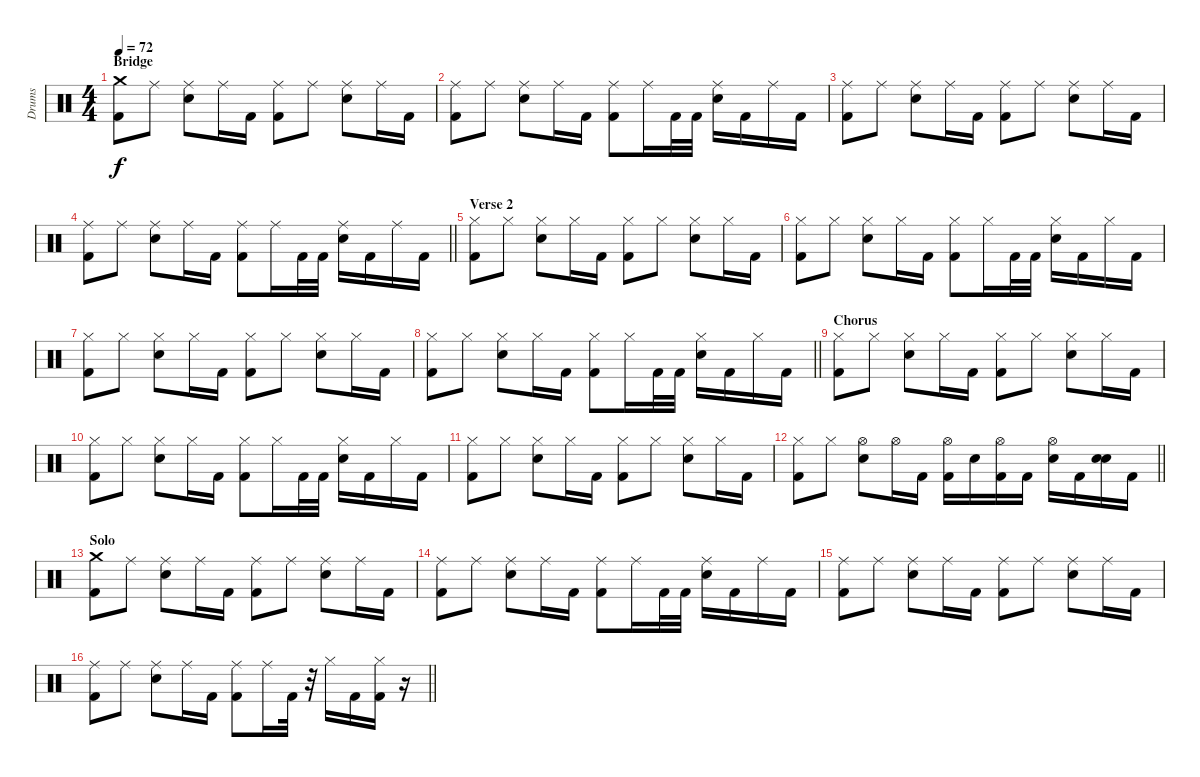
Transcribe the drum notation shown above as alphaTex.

\track ("Drums" "Drums") {instrument percussion}
\staff {score}
\articulation defaults
\ts (4 4)
\section ("" "Bridge")
\tempo 72
\clef neutral
\ks c
("Crash medium (hit)" "Kick (hit) 2").8{dy f} "Ride (middle)".8 ("Ride (middle)" "Electric Snare (hit)").8 "Ride (middle)".16 "Kick (hit) 2".16 ("Ride (middle)" "Kick (hit) 2").8 "Ride (middle)".8 ("Ride (middle)" "Electric Snare (hit)").8 "Ride (middle)".16 "Kick (hit) 2".16 |
("Ride (middle)" "Kick (hit) 2").8 "Ride (middle)".8 ("Ride (middle)" "Electric Snare (hit)").8 "Ride (middle)".16 "Kick (hit) 2".16 ("Ride (middle)" "Kick (hit) 2").8 "Ride (middle)".16 "Kick (hit) 2".32 "Kick (hit) 2".32 ("Ride (middle)" "Electric Snare (hit)").16 "Kick (hit) 2".16 "Ride (middle)".16 "Kick (hit) 2".16 |
("Ride (middle)" "Kick (hit) 2").8 "Ride (middle)".8 ("Ride (middle)" "Electric Snare (hit)").8 "Ride (middle)".16 "Kick (hit) 2".16 ("Ride (middle)" "Kick (hit) 2").8 "Ride (middle)".8 ("Ride (middle)" "Electric Snare (hit)").8 "Ride (middle)".16 "Kick (hit) 2".16 |
\barLineRight lightlight
("Ride (middle)" "Kick (hit) 2").8 "Ride (middle)".8 ("Ride (middle)" "Electric Snare (hit)").8 "Ride (middle)".16 "Kick (hit) 2".16 ("Ride (middle)" "Kick (hit) 2").8 "Ride (middle)".16 "Kick (hit) 2".32 "Kick (hit) 2".32 ("Ride (middle)" "Electric Snare (hit)").16 "Kick (hit) 2".16 "Ride (middle)".16 "Kick (hit) 2".16 |
\section ("" "Verse 2")
("Hi-Hat (closed)" "Kick (hit) 2").8 "Hi-Hat (closed)".8 ("Hi-Hat (closed)" "Electric Snare (hit)").8 "Hi-Hat (closed)".16 "Kick (hit) 2".16 ("Hi-Hat (closed)" "Kick (hit) 2").8 "Hi-Hat (closed)".8 ("Hi-Hat (closed)" "Electric Snare (hit)").8 "Hi-Hat (closed)".16 "Kick (hit) 2".16 |
("Hi-Hat (closed)" "Kick (hit) 2").8 "Hi-Hat (closed)".8 ("Hi-Hat (closed)" "Electric Snare (hit)").8 "Hi-Hat (closed)".16 "Kick (hit) 2".16 ("Hi-Hat (closed)" "Kick (hit) 2").8 "Hi-Hat (closed)".16 "Kick (hit) 2".32 "Kick (hit) 2".32 ("Hi-Hat (closed)" "Electric Snare (hit)").16 "Kick (hit) 2".16 "Hi-Hat (closed)".16 "Kick (hit) 2".16 |
("Hi-Hat (closed)" "Kick (hit) 2").8 "Hi-Hat (closed)".8 ("Hi-Hat (closed)" "Electric Snare (hit)").8 "Hi-Hat (closed)".16 "Kick (hit) 2".16 ("Hi-Hat (closed)" "Kick (hit) 2").8 "Hi-Hat (closed)".8 ("Hi-Hat (closed)" "Electric Snare (hit)").8 "Hi-Hat (closed)".16 "Kick (hit) 2".16 |
\barLineRight lightlight
("Hi-Hat (closed)" "Kick (hit) 2").8 "Hi-Hat (closed)".8 ("Hi-Hat (closed)" "Electric Snare (hit)").8 "Hi-Hat (closed)".16 "Kick (hit) 2".16 ("Hi-Hat (closed)" "Kick (hit) 2").8 "Hi-Hat (closed)".16 "Kick (hit) 2".32 "Kick (hit) 2".32 ("Hi-Hat (closed)" "Electric Snare (hit)").16 "Kick (hit) 2".16 "Hi-Hat (closed)".16 "Kick (hit) 2".16 |
\section ("" "Chorus")
("Hi-Hat (closed)" "Kick (hit) 2").8 "Hi-Hat (closed)".8 ("Hi-Hat (closed)" "Electric Snare (hit)").8 "Hi-Hat (closed)".16 "Kick (hit) 2".16 ("Hi-Hat (closed)" "Kick (hit) 2").8 "Hi-Hat (closed)".8 ("Hi-Hat (closed)" "Electric Snare (hit)").8 "Hi-Hat (closed)".16 "Kick (hit) 2".16 |
("Hi-Hat (closed)" "Kick (hit) 2").8 "Hi-Hat (closed)".8 ("Hi-Hat (closed)" "Electric Snare (hit)").8 "Hi-Hat (closed)".16 "Kick (hit) 2".16 ("Hi-Hat (closed)" "Kick (hit) 2").8 "Hi-Hat (closed)".16 "Kick (hit) 2".32 "Kick (hit) 2".32 ("Hi-Hat (closed)" "Electric Snare (hit)").16 "Kick (hit) 2".16 "Hi-Hat (closed)".16 "Kick (hit) 2".16 |
("Hi-Hat (closed)" "Kick (hit) 2").8 "Hi-Hat (closed)".8 ("Hi-Hat (closed)" "Electric Snare (hit)").8 "Hi-Hat (closed)".16 "Kick (hit) 2".16 ("Hi-Hat (closed)" "Kick (hit) 2").8 "Hi-Hat (closed)".8 ("Hi-Hat (closed)" "Electric Snare (hit)").8 "Hi-Hat (closed)".16 "Kick (hit) 2".16 |
\barLineRight lightlight
("Hi-Hat (closed)" "Kick (hit) 2").8 "Hi-Hat (closed)".8 ("Hi-Hat (open)" "Electric Snare (hit)").8 "Hi-Hat (open)".16 "Kick (hit) 2".16 ("Hi-Hat (open)" "Kick (hit) 2").16 "Electric Snare (hit)".16 ("Hi-Hat (open)" "Kick (hit) 2").16 "Kick (hit) 2".16 ("Hi-Hat (open)" "Electric Snare (hit)").16 "Kick (hit) 2".16 ("Electric Snare (hit)" "Electric Snare (hit)").16 "Kick (hit) 2".16 |
\section ("" "Solo")
("Crash medium (hit)" "Kick (hit) 2").8 "Ride (middle)".8 ("Ride (middle)" "Electric Snare (hit)").8 "Ride (middle)".16 "Kick (hit) 2".16 ("Ride (middle)" "Kick (hit) 2").8 "Ride (middle)".8 ("Ride (middle)" "Electric Snare (hit)").8 "Ride (middle)".16 "Kick (hit) 2".16 |
("Ride (middle)" "Kick (hit) 2").8 "Ride (middle)".8 ("Ride (middle)" "Electric Snare (hit)").8 "Ride (middle)".16 "Kick (hit) 2".16 ("Ride (middle)" "Kick (hit) 2").8 "Ride (middle)".16 "Kick (hit) 2".32 "Kick (hit) 2".32 ("Ride (middle)" "Electric Snare (hit)").16 "Kick (hit) 2".16 "Ride (middle)".16 "Kick (hit) 2".16 |
("Ride (middle)" "Kick (hit) 2").8 "Ride (middle)".8 ("Ride (middle)" "Electric Snare (hit)").8 "Ride (middle)".16 "Kick (hit) 2".16 ("Ride (middle)" "Kick (hit) 2").8 "Ride (middle)".8 ("Ride (middle)" "Electric Snare (hit)").8 "Ride (middle)".16 "Kick (hit) 2".16 |
\barLineRight lightlight
("Ride (middle)" "Kick (hit) 2").8 "Ride (middle)".8 ("Ride (middle)" "Electric Snare (hit)").8 "Ride (middle)".16 "Kick (hit) 2".16 ("Ride (middle)" "Kick (hit) 2").8 "Ride (middle)".16 "Kick (hit) 2".32 r.32 "Hi-Hat (closed)".16 "Kick (hit) 2".16 ("Hi-Hat (closed)" "Kick (hit) 2").16 r.16
